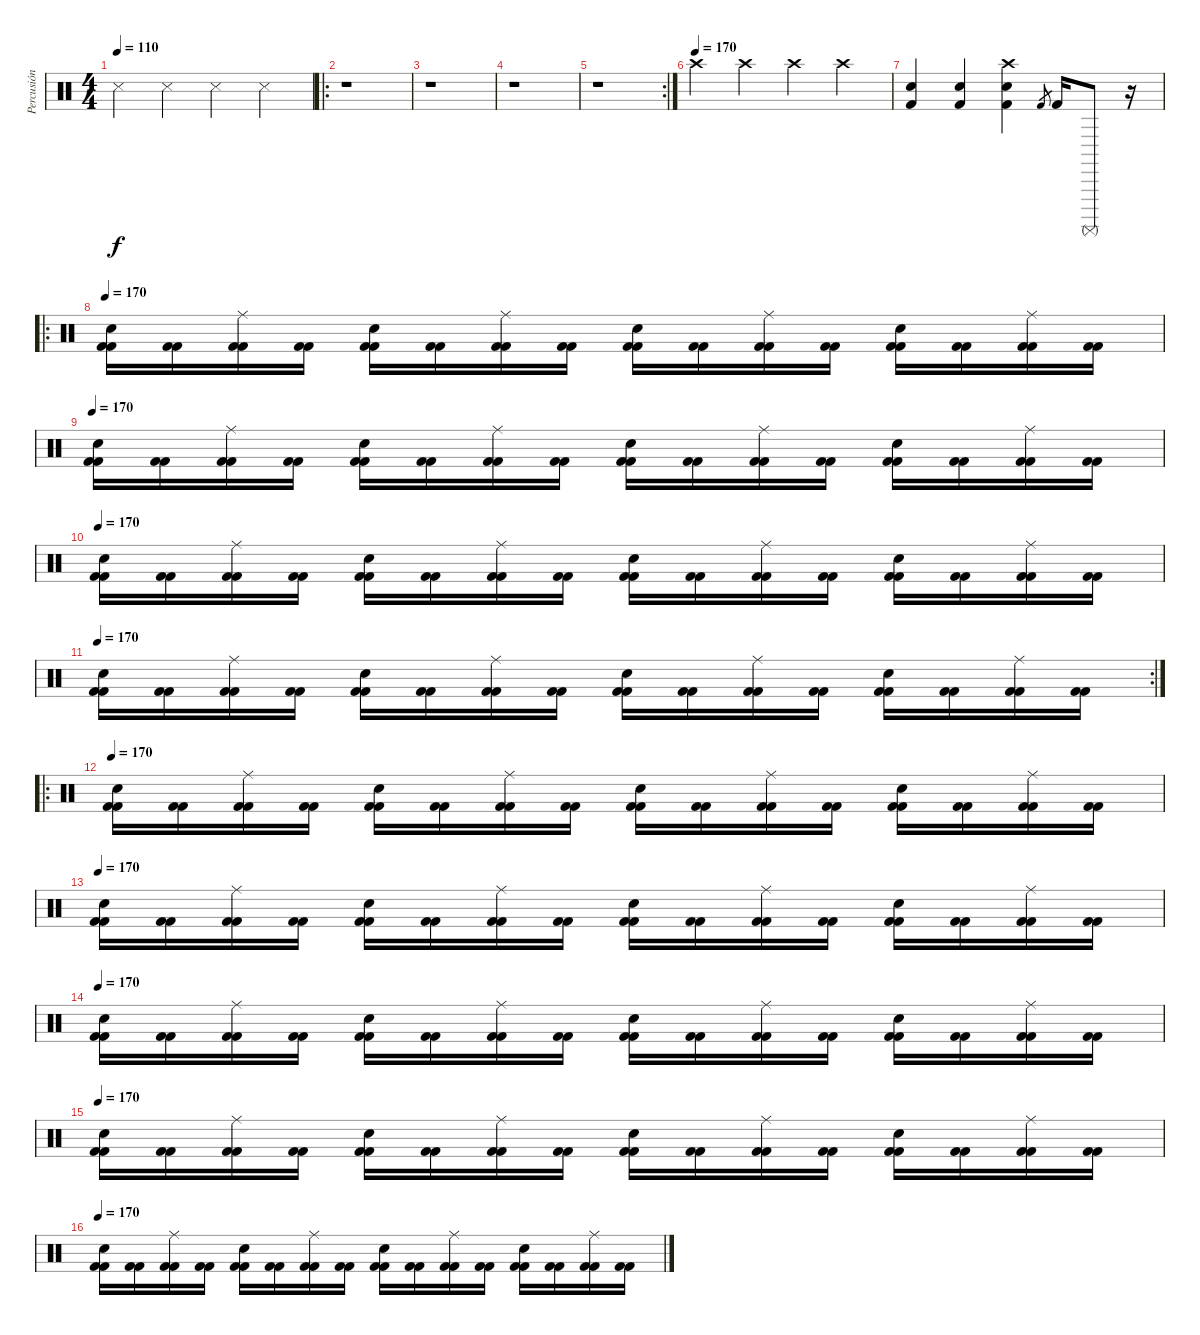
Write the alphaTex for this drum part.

\track ("Percusión" "Percusión") {instrument percussion}
\staff {score}
\articulation defaults
\ts (4 4)
\tempo 110
\clef neutral
\ks c "Snare (side stick) 3".4{dy f} "Snare (side stick) 3".4 "Snare (side stick) 3".4 "Snare (side stick) 3".4
|
\ro
r.1 |
r.1 |
r.1 |
\rc 2
r.1 |
\tempo (170)
"Crash high (hit)".4 "Crash high (hit)".4 "Crash high (hit)".4 "Crash high (hit)".4 |
("Snare (hit) 2" "Kick (hit) 2").4 ("Snare (hit) 2" "Kick (hit) 2").4 ("Crash high (hit)" "Snare (hit) 2" "Kick (hit) 2").4 "Kick (hit) 2".8{gr} "Kick (hit) 2".16 "Surdo (mute)".8 r.16 |
\ro
\tempo 170
("Electric Snare (hit)" "Kick (hit) 2" "Kick (hit) 2").16 ("Kick (hit) 2" "Kick (hit) 2").16 ("Ride (middle)" "Kick (hit) 2" "Kick (hit) 2").16 ("Kick (hit) 2" "Kick (hit) 2").16 ("Electric Snare (hit)" "Kick (hit) 2" "Kick (hit) 2").16 ("Kick (hit) 2" "Kick (hit) 2").16 ("Ride (middle)" "Kick (hit) 2" "Kick (hit) 2").16 ("Kick (hit) 2" "Kick (hit) 2").16 ("Electric Snare (hit)" "Kick (hit) 2" "Kick (hit) 2").16 ("Kick (hit) 2" "Kick (hit) 2").16 ("Ride (middle)" "Kick (hit) 2" "Kick (hit) 2").16 ("Kick (hit) 2" "Kick (hit) 2").16 ("Electric Snare (hit)" "Kick (hit) 2" "Kick (hit) 2").16 ("Kick (hit) 2" "Kick (hit) 2").16 ("Ride (middle)" "Kick (hit) 2" "Kick (hit) 2").16 ("Kick (hit) 2" "Kick (hit) 2").16 |
\tempo 170
("Electric Snare (hit)" "Kick (hit) 2" "Kick (hit) 2").16 ("Kick (hit) 2" "Kick (hit) 2").16 ("Ride (middle)" "Kick (hit) 2" "Kick (hit) 2").16 ("Kick (hit) 2" "Kick (hit) 2").16 ("Electric Snare (hit)" "Kick (hit) 2" "Kick (hit) 2").16 ("Kick (hit) 2" "Kick (hit) 2").16 ("Ride (middle)" "Kick (hit) 2" "Kick (hit) 2").16 ("Kick (hit) 2" "Kick (hit) 2").16 ("Electric Snare (hit)" "Kick (hit) 2" "Kick (hit) 2").16 ("Kick (hit) 2" "Kick (hit) 2").16 ("Ride (middle)" "Kick (hit) 2" "Kick (hit) 2").16 ("Kick (hit) 2" "Kick (hit) 2").16 ("Electric Snare (hit)" "Kick (hit) 2" "Kick (hit) 2").16 ("Kick (hit) 2" "Kick (hit) 2").16 ("Ride (middle)" "Kick (hit) 2" "Kick (hit) 2").16 ("Kick (hit) 2" "Kick (hit) 2").16 |
\tempo 170
("Electric Snare (hit)" "Kick (hit) 2" "Kick (hit) 2").16 ("Kick (hit) 2" "Kick (hit) 2").16 ("Ride (middle)" "Kick (hit) 2" "Kick (hit) 2").16 ("Kick (hit) 2" "Kick (hit) 2").16 ("Electric Snare (hit)" "Kick (hit) 2" "Kick (hit) 2").16 ("Kick (hit) 2" "Kick (hit) 2").16 ("Ride (middle)" "Kick (hit) 2" "Kick (hit) 2").16 ("Kick (hit) 2" "Kick (hit) 2").16 ("Electric Snare (hit)" "Kick (hit) 2" "Kick (hit) 2").16 ("Kick (hit) 2" "Kick (hit) 2").16 ("Ride (middle)" "Kick (hit) 2" "Kick (hit) 2").16 ("Kick (hit) 2" "Kick (hit) 2").16 ("Electric Snare (hit)" "Kick (hit) 2" "Kick (hit) 2").16 ("Kick (hit) 2" "Kick (hit) 2").16 ("Ride (middle)" "Kick (hit) 2" "Kick (hit) 2").16 ("Kick (hit) 2" "Kick (hit) 2").16 |
\rc 2
\tempo 170
("Electric Snare (hit)" "Kick (hit) 2" "Kick (hit) 2").16 ("Kick (hit) 2" "Kick (hit) 2").16 ("Ride (middle)" "Kick (hit) 2" "Kick (hit) 2").16 ("Kick (hit) 2" "Kick (hit) 2").16 ("Electric Snare (hit)" "Kick (hit) 2" "Kick (hit) 2").16 ("Kick (hit) 2" "Kick (hit) 2").16 ("Ride (middle)" "Kick (hit) 2" "Kick (hit) 2").16 ("Kick (hit) 2" "Kick (hit) 2").16 ("Electric Snare (hit)" "Kick (hit) 2" "Kick (hit) 2").16 ("Kick (hit) 2" "Kick (hit) 2").16 ("Ride (middle)" "Kick (hit) 2" "Kick (hit) 2").16 ("Kick (hit) 2" "Kick (hit) 2").16 ("Electric Snare (hit)" "Kick (hit) 2" "Kick (hit) 2").16 ("Kick (hit) 2" "Kick (hit) 2").16 ("Ride (middle)" "Kick (hit) 2" "Kick (hit) 2").16 ("Kick (hit) 2" "Kick (hit) 2").16 |
\ro
\tempo 170
("Electric Snare (hit)" "Kick (hit) 2" "Kick (hit) 2").16 ("Kick (hit) 2" "Kick (hit) 2").16 ("Ride (middle)" "Kick (hit) 2" "Kick (hit) 2").16 ("Kick (hit) 2" "Kick (hit) 2").16 ("Electric Snare (hit)" "Kick (hit) 2" "Kick (hit) 2").16 ("Kick (hit) 2" "Kick (hit) 2").16 ("Ride (middle)" "Kick (hit) 2" "Kick (hit) 2").16 ("Kick (hit) 2" "Kick (hit) 2").16 ("Electric Snare (hit)" "Kick (hit) 2" "Kick (hit) 2").16 ("Kick (hit) 2" "Kick (hit) 2").16 ("Ride (middle)" "Kick (hit) 2" "Kick (hit) 2").16 ("Kick (hit) 2" "Kick (hit) 2").16 ("Electric Snare (hit)" "Kick (hit) 2" "Kick (hit) 2").16 ("Kick (hit) 2" "Kick (hit) 2").16 ("Ride (middle)" "Kick (hit) 2" "Kick (hit) 2").16 ("Kick (hit) 2" "Kick (hit) 2").16 |
\tempo 170
("Electric Snare (hit)" "Kick (hit) 2" "Kick (hit) 2").16 ("Kick (hit) 2" "Kick (hit) 2").16 ("Ride (middle)" "Kick (hit) 2" "Kick (hit) 2").16 ("Kick (hit) 2" "Kick (hit) 2").16 ("Electric Snare (hit)" "Kick (hit) 2" "Kick (hit) 2").16 ("Kick (hit) 2" "Kick (hit) 2").16 ("Ride (middle)" "Kick (hit) 2" "Kick (hit) 2").16 ("Kick (hit) 2" "Kick (hit) 2").16 ("Electric Snare (hit)" "Kick (hit) 2" "Kick (hit) 2").16 ("Kick (hit) 2" "Kick (hit) 2").16 ("Ride (middle)" "Kick (hit) 2" "Kick (hit) 2").16 ("Kick (hit) 2" "Kick (hit) 2").16 ("Electric Snare (hit)" "Kick (hit) 2" "Kick (hit) 2").16 ("Kick (hit) 2" "Kick (hit) 2").16 ("Ride (middle)" "Kick (hit) 2" "Kick (hit) 2").16 ("Kick (hit) 2" "Kick (hit) 2").16 |
\tempo 170
("Electric Snare (hit)" "Kick (hit) 2" "Kick (hit) 2").16 ("Kick (hit) 2" "Kick (hit) 2").16 ("Ride (middle)" "Kick (hit) 2" "Kick (hit) 2").16 ("Kick (hit) 2" "Kick (hit) 2").16 ("Electric Snare (hit)" "Kick (hit) 2" "Kick (hit) 2").16 ("Kick (hit) 2" "Kick (hit) 2").16 ("Ride (middle)" "Kick (hit) 2" "Kick (hit) 2").16 ("Kick (hit) 2" "Kick (hit) 2").16 ("Electric Snare (hit)" "Kick (hit) 2" "Kick (hit) 2").16 ("Kick (hit) 2" "Kick (hit) 2").16 ("Ride (middle)" "Kick (hit) 2" "Kick (hit) 2").16 ("Kick (hit) 2" "Kick (hit) 2").16 ("Electric Snare (hit)" "Kick (hit) 2" "Kick (hit) 2").16 ("Kick (hit) 2" "Kick (hit) 2").16 ("Ride (middle)" "Kick (hit) 2" "Kick (hit) 2").16 ("Kick (hit) 2" "Kick (hit) 2").16 |
\tempo 170
("Electric Snare (hit)" "Kick (hit) 2" "Kick (hit) 2").16 ("Kick (hit) 2" "Kick (hit) 2").16 ("Ride (middle)" "Kick (hit) 2" "Kick (hit) 2").16 ("Kick (hit) 2" "Kick (hit) 2").16 ("Electric Snare (hit)" "Kick (hit) 2" "Kick (hit) 2").16 ("Kick (hit) 2" "Kick (hit) 2").16 ("Ride (middle)" "Kick (hit) 2" "Kick (hit) 2").16 ("Kick (hit) 2" "Kick (hit) 2").16 ("Electric Snare (hit)" "Kick (hit) 2" "Kick (hit) 2").16 ("Kick (hit) 2" "Kick (hit) 2").16 ("Ride (middle)" "Kick (hit) 2" "Kick (hit) 2").16 ("Kick (hit) 2" "Kick (hit) 2").16 ("Electric Snare (hit)" "Kick (hit) 2" "Kick (hit) 2").16 ("Kick (hit) 2" "Kick (hit) 2").16 ("Ride (middle)" "Kick (hit) 2" "Kick (hit) 2").16 ("Kick (hit) 2" "Kick (hit) 2").16 |
\tempo 170
("Electric Snare (hit)" "Kick (hit) 2" "Kick (hit) 2").16 ("Kick (hit) 2" "Kick (hit) 2").16 ("Ride (middle)" "Kick (hit) 2" "Kick (hit) 2").16 ("Kick (hit) 2" "Kick (hit) 2").16 ("Electric Snare (hit)" "Kick (hit) 2" "Kick (hit) 2").16 ("Kick (hit) 2" "Kick (hit) 2").16 ("Ride (middle)" "Kick (hit) 2" "Kick (hit) 2").16 ("Kick (hit) 2" "Kick (hit) 2").16 ("Electric Snare (hit)" "Kick (hit) 2" "Kick (hit) 2").16 ("Kick (hit) 2" "Kick (hit) 2").16 ("Ride (middle)" "Kick (hit) 2" "Kick (hit) 2").16 ("Kick (hit) 2" "Kick (hit) 2").16 ("Electric Snare (hit)" "Kick (hit) 2" "Kick (hit) 2").16 ("Kick (hit) 2" "Kick (hit) 2").16 ("Ride (middle)" "Kick (hit) 2" "Kick (hit) 2").16 ("Kick (hit) 2" "Kick (hit) 2").16
